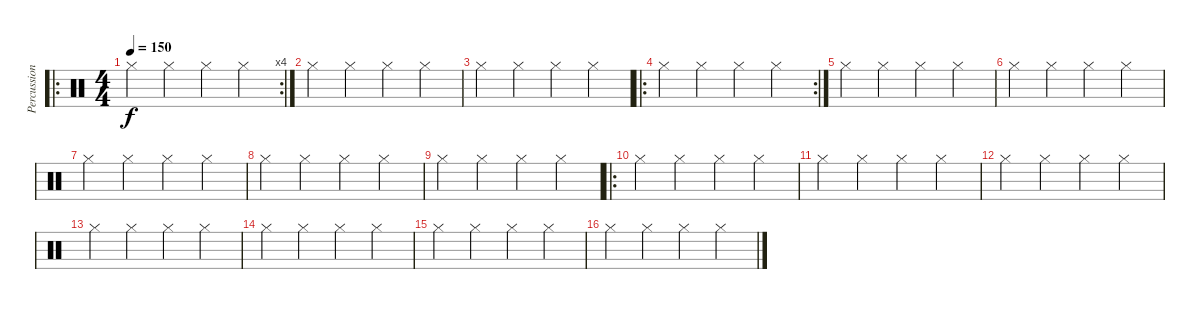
\track ("Percussioni" "Percussion") {instrument percussion}
\staff {score}
\articulation defaults
\ro
\rc 4
\ts (4 4)
\tempo 150
\clef neutral
\ks c "Hi-Hat (closed)".4{dy f} "Hi-Hat (closed)".4 "Hi-Hat (closed)".4 "Hi-Hat (closed)".4
|
"Hi-Hat (closed)".4 "Hi-Hat (closed)".4 "Hi-Hat (closed)".4 "Hi-Hat (closed)".4 |
"Hi-Hat (closed)".4 "Hi-Hat (closed)".4 "Hi-Hat (closed)".4 "Hi-Hat (closed)".4 |
\ro
\rc 2 "Hi-Hat (closed)".4 "Hi-Hat (closed)".4 "Hi-Hat (closed)".4 "Hi-Hat (closed)".4
|
"Hi-Hat (closed)".4 "Hi-Hat (closed)".4 "Hi-Hat (closed)".4 "Hi-Hat (closed)".4 |
"Hi-Hat (closed)".4 "Hi-Hat (closed)".4 "Hi-Hat (closed)".4 "Hi-Hat (closed)".4 |
"Hi-Hat (closed)".4 "Hi-Hat (closed)".4 "Hi-Hat (closed)".4 "Hi-Hat (closed)".4 |
"Hi-Hat (closed)".4 "Hi-Hat (closed)".4 "Hi-Hat (closed)".4 "Hi-Hat (closed)".4 |
"Hi-Hat (closed)".4 "Hi-Hat (closed)".4 "Hi-Hat (closed)".4 "Hi-Hat (closed)".4 |
\ro "Hi-Hat (closed)".4 "Hi-Hat (closed)".4 "Hi-Hat (closed)".4 "Hi-Hat (closed)".4
|
"Hi-Hat (closed)".4 "Hi-Hat (closed)".4 "Hi-Hat (closed)".4 "Hi-Hat (closed)".4 |
"Hi-Hat (closed)".4 "Hi-Hat (closed)".4 "Hi-Hat (closed)".4 "Hi-Hat (closed)".4 |
"Hi-Hat (closed)".4 "Hi-Hat (closed)".4 "Hi-Hat (closed)".4 "Hi-Hat (closed)".4 |
"Hi-Hat (closed)".4 "Hi-Hat (closed)".4 "Hi-Hat (closed)".4 "Hi-Hat (closed)".4 |
"Hi-Hat (closed)".4 "Hi-Hat (closed)".4 "Hi-Hat (closed)".4 "Hi-Hat (closed)".4 |
"Hi-Hat (closed)".4 "Hi-Hat (closed)".4 "Hi-Hat (closed)".4 "Hi-Hat (closed)".4
